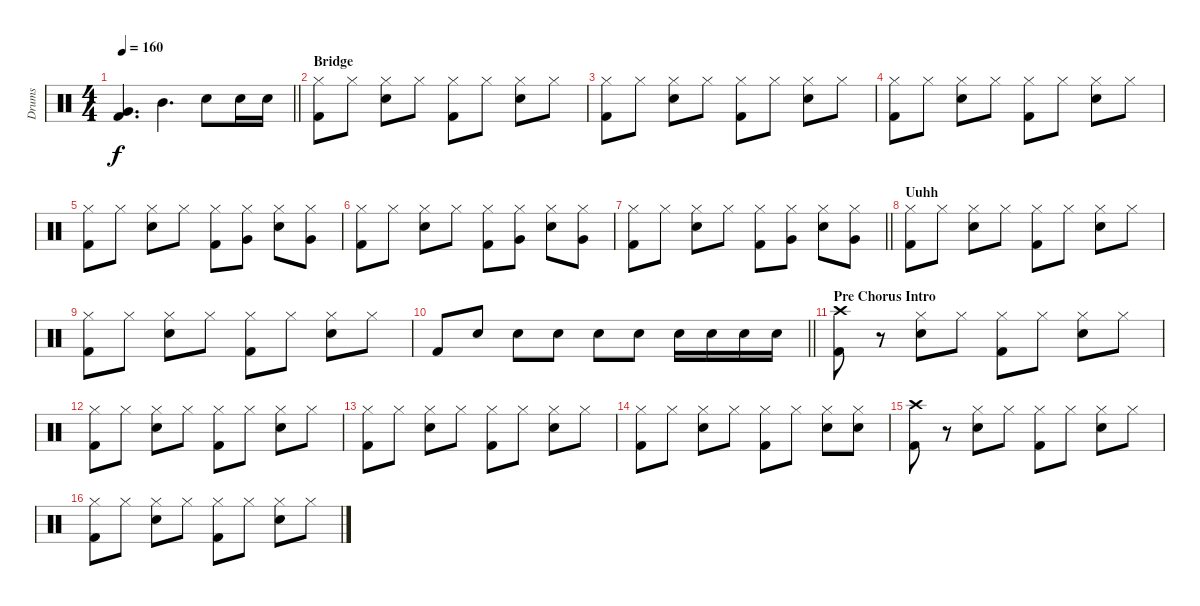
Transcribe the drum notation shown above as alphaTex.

\track ("Drums" "Drums") {instrument percussion}
\staff {score}
\articulation defaults
\ts (4 4)
\tempo 160
\clef neutral
\barLineRight lightlight
\ks c
("Very Low Tom (hit)" "Kick (hit) 2").4{d dy f} "Mid Tom (hit)".4{d} "Electric Snare (hit)".8 "Electric Snare (hit)".16 "Electric Snare (hit)".16 |
\section ("" "Bridge")
("Hi-Hat (closed)" "Kick (hit) 2").8 "Hi-Hat (closed)".8 ("Hi-Hat (closed)" "Electric Snare (hit)").8 "Hi-Hat (closed)".8 ("Hi-Hat (closed)" "Kick (hit) 2").8 "Hi-Hat (closed)".8 ("Hi-Hat (closed)" "Electric Snare (hit)").8 "Hi-Hat (closed)".8 |
("Hi-Hat (closed)" "Kick (hit) 2").8 "Hi-Hat (closed)".8 ("Hi-Hat (closed)" "Electric Snare (hit)").8 "Hi-Hat (closed)".8 ("Hi-Hat (closed)" "Kick (hit) 2").8 "Hi-Hat (closed)".8 ("Hi-Hat (closed)" "Electric Snare (hit)").8 "Hi-Hat (closed)".8 |
("Hi-Hat (closed)" "Kick (hit) 2").8 "Hi-Hat (closed)".8 ("Hi-Hat (closed)" "Electric Snare (hit)").8 "Hi-Hat (closed)".8 ("Hi-Hat (closed)" "Kick (hit) 2").8 "Hi-Hat (closed)".8 ("Hi-Hat (closed)" "Electric Snare (hit)").8 "Hi-Hat (closed)".8 |
("Hi-Hat (closed)" "Kick (hit) 2").8 "Hi-Hat (closed)".8 ("Hi-Hat (closed)" "Electric Snare (hit)").8 "Hi-Hat (closed)".8 ("Hi-Hat (closed)" "Kick (hit) 2").8 ("Hi-Hat (closed)" "Very Low Tom (hit)").8 ("Hi-Hat (closed)" "Electric Snare (hit)").8 ("Hi-Hat (closed)" "Very Low Tom (hit)").8 |
("Hi-Hat (closed)" "Kick (hit) 2").8 "Hi-Hat (closed)".8 ("Hi-Hat (closed)" "Electric Snare (hit)").8 "Hi-Hat (closed)".8 ("Hi-Hat (closed)" "Kick (hit) 2").8 ("Hi-Hat (closed)" "Very Low Tom (hit)").8 ("Hi-Hat (closed)" "Electric Snare (hit)").8 ("Hi-Hat (closed)" "Very Low Tom (hit)").8 |
\barLineRight lightlight
("Hi-Hat (closed)" "Kick (hit) 2").8 "Hi-Hat (closed)".8 ("Hi-Hat (closed)" "Electric Snare (hit)").8 "Hi-Hat (closed)".8 ("Hi-Hat (closed)" "Kick (hit) 2").8 ("Hi-Hat (closed)" "Very Low Tom (hit)").8 ("Hi-Hat (closed)" "Electric Snare (hit)").8 ("Hi-Hat (closed)" "Very Low Tom (hit)").8 |
\section ("" "Uuhh")
("Hi-Hat (closed)" "Kick (hit) 2").8 "Hi-Hat (closed)".8 ("Hi-Hat (closed)" "Electric Snare (hit)").8 "Hi-Hat (closed)".8 ("Hi-Hat (closed)" "Kick (hit) 2").8 "Hi-Hat (closed)".8 ("Hi-Hat (closed)" "Electric Snare (hit)").8 "Hi-Hat (closed)".8 |
("Hi-Hat (closed)" "Kick (hit) 2").8 "Hi-Hat (closed)".8 ("Hi-Hat (closed)" "Electric Snare (hit)").8 "Hi-Hat (closed)".8 ("Hi-Hat (closed)" "Kick (hit) 2").8 "Hi-Hat (closed)".8 ("Hi-Hat (closed)" "Electric Snare (hit)").8 "Hi-Hat (closed)".8 |
\barLineRight lightlight "Kick (hit) 2".8 "Electric Snare (hit)".8 "Electric Snare (hit)".8 "Electric Snare (hit)".8 "Electric Snare (hit)".8 "Electric Snare (hit)".8 "Electric Snare (hit)".16 "Electric Snare (hit)".16 "Electric Snare (hit)".16 "Electric Snare (hit)".16
|
\section ("" "Pre Chorus Intro")
("Crash high (hit)" "Kick (hit) 2").8 r.8 ("Hi-Hat (closed)" "Electric Snare (hit)").8 "Hi-Hat (closed)".8 ("Hi-Hat (closed)" "Kick (hit) 2").8 "Hi-Hat (closed)".8 ("Hi-Hat (closed)" "Electric Snare (hit)").8 "Hi-Hat (closed)".8 |
("Hi-Hat (closed)" "Kick (hit) 2").8 "Hi-Hat (closed)".8 ("Hi-Hat (closed)" "Electric Snare (hit)").8 "Hi-Hat (closed)".8 ("Hi-Hat (closed)" "Kick (hit) 2").8 "Hi-Hat (closed)".8 ("Hi-Hat (closed)" "Electric Snare (hit)").8 "Hi-Hat (closed)".8 |
("Hi-Hat (closed)" "Kick (hit) 2").8 "Hi-Hat (closed)".8 ("Hi-Hat (closed)" "Electric Snare (hit)").8 "Hi-Hat (closed)".8 ("Hi-Hat (closed)" "Kick (hit) 2").8 "Hi-Hat (closed)".8 ("Hi-Hat (closed)" "Electric Snare (hit)").8 "Hi-Hat (closed)".8 |
("Hi-Hat (closed)" "Kick (hit) 2").8 "Hi-Hat (closed)".8 ("Hi-Hat (closed)" "Electric Snare (hit)").8 "Hi-Hat (closed)".8 ("Hi-Hat (closed)" "Kick (hit) 2").8 "Hi-Hat (closed)".8 ("Hi-Hat (closed)" "Electric Snare (hit)").8 ("Hi-Hat (closed)" "Electric Snare (hit)").8 |
("Crash high (hit)" "Kick (hit) 2").8 r.8 ("Hi-Hat (closed)" "Electric Snare (hit)").8 "Hi-Hat (closed)".8 ("Hi-Hat (closed)" "Kick (hit) 2").8 "Hi-Hat (closed)".8 ("Hi-Hat (closed)" "Electric Snare (hit)").8 "Hi-Hat (closed)".8 |
("Hi-Hat (closed)" "Kick (hit) 2").8 "Hi-Hat (closed)".8 ("Hi-Hat (closed)" "Electric Snare (hit)").8 "Hi-Hat (closed)".8 ("Hi-Hat (closed)" "Kick (hit) 2").8 "Hi-Hat (closed)".8 ("Hi-Hat (closed)" "Electric Snare (hit)").8 "Hi-Hat (closed)".8
